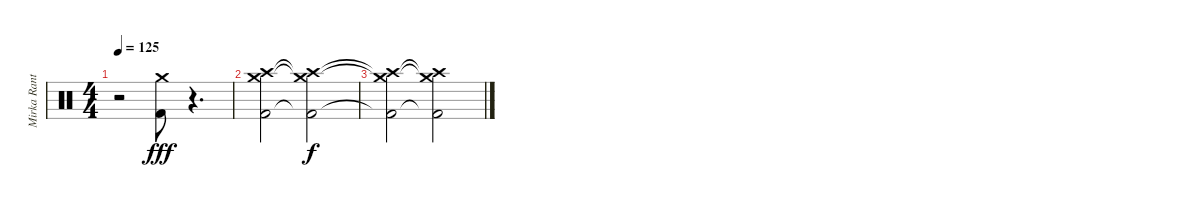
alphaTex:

\track ("Mirka Rantanen (Thunderstone)" "Mirka Rant") {instrument percussion}
\staff {score}
\articulation defaults
\ts (4 4)
\tempo 125
\clef neutral
\ks c
r.2{dy fff} ("Crash medium (hit)" "Kick (hit) 2").8 r.4{d} |
("Crash medium (hit)" "Crash high (hit)" "Kick (hit) 2").2 ("Crash medium (hit)"{t} "Crash high (hit)"{t} "Kick (hit) 2"{t}).2{dy f} |
("Crash medium (hit)"{t} "Crash high (hit)"{t} "Kick (hit) 2"{t}).2 ("Crash medium (hit)"{t} "Crash high (hit)"{t} "Kick (hit) 2"{t}).2
